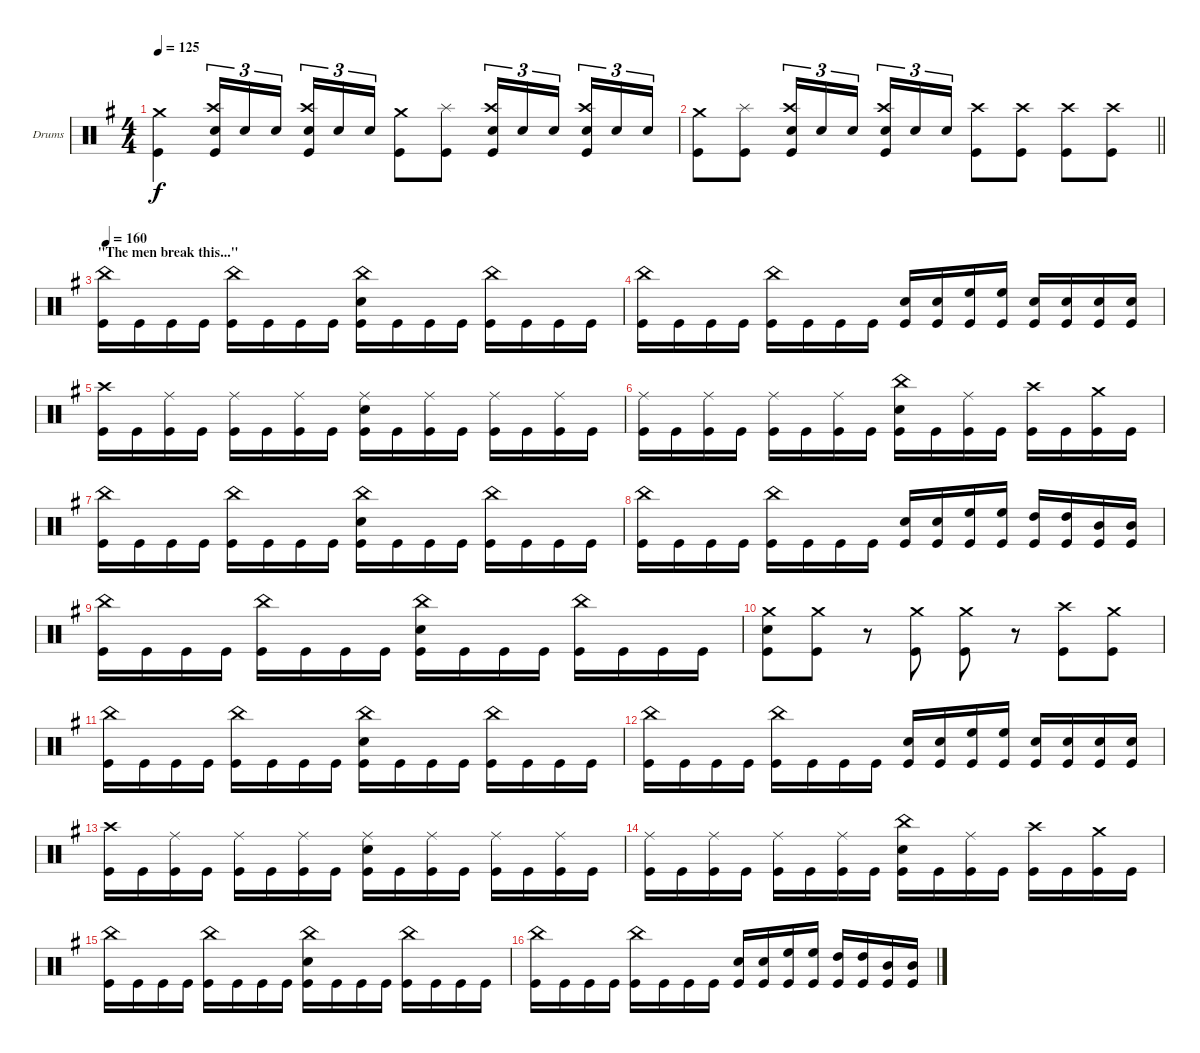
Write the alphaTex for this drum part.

\bracketExtendMode groupsimilarinstruments
\firstSystemTrackNameOrientation horizontal
\otherSystemsTrackNameOrientation horizontal
\track ("Drumkit" "Drums") {instrument percussion}
\staff {score}
\articulation defaults
\ts (4 4)
\tempo 125
\clef neutral
\scale
0.520913
\ks g
("Crash medium (hit)" "Kick (hit)").4{dy f} ("Crash high (hit)" "Snare (hit) 2" "Kick (hit)").16{tu (3 2)} "Snare (hit) 2".16{tu (3 2)} "Snare (hit) 2".16{tu (3 2)} ("Crash high (hit)" "Snare (hit) 2" "Kick (hit)").16{tu (3 2)} "Snare (hit) 2".16{tu (3 2)} "Snare (hit) 2".16{tu (3 2)} ("Crash medium (hit)" "Kick (hit)").8 ("Splash (hit)" "Kick (hit)").8 ("Crash high (hit)" "Snare (hit) 2" "Kick (hit)").16{tu (3 2)} "Snare (hit) 2".16{tu (3 2)} "Snare (hit) 2".16{tu (3 2)} ("Crash high (hit)" "Snare (hit) 2" "Kick (hit)").16{tu (3 2)} "Snare (hit) 2".16{tu (3 2)} "Snare (hit) 2".16{tu (3 2)} |
\scale
0.479087
\barLineRight lightlight
("Crash medium (hit)" "Kick (hit)").8 ("Splash (hit)" "Kick (hit)").8 ("Crash high (hit)" "Snare (hit) 2" "Kick (hit)").16{tu (3 2)} "Snare (hit) 2".16{tu (3 2)} "Snare (hit) 2".16{tu (3 2)} ("Crash high (hit)" "Snare (hit) 2" "Kick (hit)").16{tu (3 2)} "Snare (hit) 2".16{tu (3 2)} "Snare (hit) 2".16{tu (3 2)} ("Crash high (hit)" "Kick (hit)").8 ("Crash high (hit)" "Kick (hit)").8 ("Crash high (hit)" "Kick (hit)").8 ("Crash high (hit)" "Kick (hit)").8 |
\section ("" "\"The men break this...\"")
\tempo 160
\scale
0.5 ("China (hit)" "Kick (hit)").16 "Kick (hit)".16 "Kick (hit)".16 "Kick (hit)".16 ("China (hit)" "Kick (hit)").16 "Kick (hit)".16 "Kick (hit)".16 "Kick (hit)".16 ("China (hit)" "Snare (hit) 2" "Kick (hit)").16 "Kick (hit)".16 "Kick (hit)".16 "Kick (hit)".16 ("China (hit)" "Kick (hit)").16 "Kick (hit)".16 "Kick (hit)".16 "Kick (hit)".16 |
\scale
0.5 ("China (hit)" "Kick (hit)").16 "Kick (hit)".16 "Kick (hit)".16 "Kick (hit)".16 ("China (hit)" "Kick (hit)").16 "Kick (hit)".16 "Kick (hit)".16 "Kick (hit)".16 ("Snare (hit) 2" "Kick (hit)").16 ("Snare (hit) 2" "Kick (hit)").16 ("High Floor Tom (hit)" "Kick (hit)").16 ("High Floor Tom (hit)" "Kick (hit)").16 ("Snare (hit) 2" "Kick (hit)").16 ("Snare (hit) 2" "Kick (hit)").16 ("Snare (hit) 2" "Kick (hit)").16 ("Snare (hit) 2" "Kick (hit)").16 |
\scale
0.5 ("Crash high (hit)" "Kick (hit)").16 "Kick (hit)".16 ("Ride (middle)" "Kick (hit)").16 "Kick (hit)".16 ("Ride (middle)" "Kick (hit)").16 "Kick (hit)".16 ("Ride (middle)" "Kick (hit)").16 "Kick (hit)".16 ("Ride (middle)" "Snare (hit) 2" "Kick (hit)").16 "Kick (hit)".16 ("Ride (middle)" "Kick (hit)").16 "Kick (hit)".16 ("Ride (middle)" "Kick (hit)").16 "Kick (hit)".16 ("Ride (middle)" "Kick (hit)").16 "Kick (hit)".16 |
\scale
0.5 ("Ride (middle)" "Kick (hit)").16 "Kick (hit)".16 ("Ride (middle)" "Kick (hit)").16 "Kick (hit)".16 ("Ride (middle)" "Kick (hit)").16 "Kick (hit)".16 ("Ride (middle)" "Kick (hit)").16 "Kick (hit)".16 ("China (hit)" "Snare (hit) 2" "Kick (hit)").16 "Kick (hit)".16 ("Ride (middle)" "Kick (hit)").16 "Kick (hit)".16 ("Crash high (hit)" "Kick (hit)").16 "Kick (hit)".16 ("Crash medium (hit)" "Kick (hit)").16 "Kick (hit)".16 |
\scale
0.5 ("China (hit)" "Kick (hit)").16 "Kick (hit)".16 "Kick (hit)".16 "Kick (hit)".16 ("China (hit)" "Kick (hit)").16 "Kick (hit)".16 "Kick (hit)".16 "Kick (hit)".16 ("China (hit)" "Snare (hit) 2" "Kick (hit)").16 "Kick (hit)".16 "Kick (hit)".16 "Kick (hit)".16 ("China (hit)" "Kick (hit)").16 "Kick (hit)".16 "Kick (hit)".16 "Kick (hit)".16 |
\scale
0.5 ("China (hit)" "Kick (hit)").16 "Kick (hit)".16 "Kick (hit)".16 "Kick (hit)".16 ("China (hit)" "Kick (hit)").16 "Kick (hit)".16 "Kick (hit)".16 "Kick (hit)".16 ("Snare (hit) 2" "Kick (hit)").16 ("Snare (hit) 2" "Kick (hit)").16 ("High Floor Tom (hit)" "Kick (hit)").16 ("High Floor Tom (hit)" "Kick (hit)").16 ("High Tom (hit)" "Kick (hit)").16 ("High Tom (hit)" "Kick (hit)").16 ("Mid Tom (hit)" "Kick (hit)").16 ("Mid Tom (hit)" "Kick (hit)").16 |
\scale
0.607843 ("China (hit)" "Kick (hit)").16 "Kick (hit)".16 "Kick (hit)".16 "Kick (hit)".16 ("China (hit)" "Kick (hit)").16 "Kick (hit)".16 "Kick (hit)".16 "Kick (hit)".16 ("China (hit)" "Snare (hit) 2" "Kick (hit)").16 "Kick (hit)".16 "Kick (hit)".16 "Kick (hit)".16 ("China (hit)" "Kick (hit)").16 "Kick (hit)".16 "Kick (hit)".16 "Kick (hit)".16 |
\scale
0.392157 ("Crash medium (hit)" "Snare (hit) 2" "Kick (hit)").8 ("Crash medium (hit)" "Kick (hit)").8 r.8 ("Crash medium (hit)" "Kick (hit)").8 ("Crash medium (hit)" "Kick (hit)").8 r.8 ("Crash high (hit)" "Kick (hit)").8 ("Crash medium (hit)" "Kick (hit)").8 |
\scale
0.5 ("China (hit)" "Kick (hit)").16 "Kick (hit)".16 "Kick (hit)".16 "Kick (hit)".16 ("China (hit)" "Kick (hit)").16 "Kick (hit)".16 "Kick (hit)".16 "Kick (hit)".16 ("China (hit)" "Snare (hit) 2" "Kick (hit)").16 "Kick (hit)".16 "Kick (hit)".16 "Kick (hit)".16 ("China (hit)" "Kick (hit)").16 "Kick (hit)".16 "Kick (hit)".16 "Kick (hit)".16 |
\scale
0.5 ("China (hit)" "Kick (hit)").16 "Kick (hit)".16 "Kick (hit)".16 "Kick (hit)".16 ("China (hit)" "Kick (hit)").16 "Kick (hit)".16 "Kick (hit)".16 "Kick (hit)".16 ("Snare (hit) 2" "Kick (hit)").16 ("Snare (hit) 2" "Kick (hit)").16 ("High Floor Tom (hit)" "Kick (hit)").16 ("High Floor Tom (hit)" "Kick (hit)").16 ("Snare (hit) 2" "Kick (hit)").16 ("Snare (hit) 2" "Kick (hit)").16 ("Snare (hit) 2" "Kick (hit)").16 ("Snare (hit) 2" "Kick (hit)").16 |
\scale
0.5 ("Crash high (hit)" "Kick (hit)").16 "Kick (hit)".16 ("Ride (middle)" "Kick (hit)").16 "Kick (hit)".16 ("Ride (middle)" "Kick (hit)").16 "Kick (hit)".16 ("Ride (middle)" "Kick (hit)").16 "Kick (hit)".16 ("Ride (middle)" "Snare (hit) 2" "Kick (hit)").16 "Kick (hit)".16 ("Ride (middle)" "Kick (hit)").16 "Kick (hit)".16 ("Ride (middle)" "Kick (hit)").16 "Kick (hit)".16 ("Ride (middle)" "Kick (hit)").16 "Kick (hit)".16 |
\scale
0.5 ("Ride (middle)" "Kick (hit)").16 "Kick (hit)".16 ("Ride (middle)" "Kick (hit)").16 "Kick (hit)".16 ("Ride (middle)" "Kick (hit)").16 "Kick (hit)".16 ("Ride (middle)" "Kick (hit)").16 "Kick (hit)".16 ("China (hit)" "Snare (hit) 2" "Kick (hit)").16 "Kick (hit)".16 ("Ride (middle)" "Kick (hit)").16 "Kick (hit)".16 ("Crash high (hit)" "Kick (hit)").16 "Kick (hit)".16 ("Crash medium (hit)" "Kick (hit)").16 "Kick (hit)".16 |
\scale
0.5 ("China (hit)" "Kick (hit)").16 "Kick (hit)".16 "Kick (hit)".16 "Kick (hit)".16 ("China (hit)" "Kick (hit)").16 "Kick (hit)".16 "Kick (hit)".16 "Kick (hit)".16 ("China (hit)" "Snare (hit) 2" "Kick (hit)").16 "Kick (hit)".16 "Kick (hit)".16 "Kick (hit)".16 ("China (hit)" "Kick (hit)").16 "Kick (hit)".16 "Kick (hit)".16 "Kick (hit)".16 |
\scale
0.5 ("China (hit)" "Kick (hit)").16 "Kick (hit)".16 "Kick (hit)".16 "Kick (hit)".16 ("China (hit)" "Kick (hit)").16 "Kick (hit)".16 "Kick (hit)".16 "Kick (hit)".16 ("Snare (hit) 2" "Kick (hit)").16 ("Snare (hit) 2" "Kick (hit)").16 ("High Floor Tom (hit)" "Kick (hit)").16 ("High Floor Tom (hit)" "Kick (hit)").16 ("High Tom (hit)" "Kick (hit)").16 ("High Tom (hit)" "Kick (hit)").16 ("Mid Tom (hit)" "Kick (hit)").16 ("Mid Tom (hit)" "Kick (hit)").16
